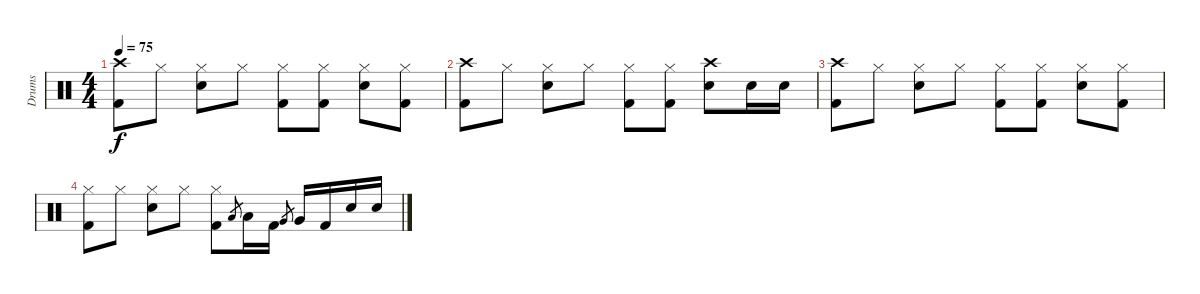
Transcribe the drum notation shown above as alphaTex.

\track ("Drums" "Drums") {instrument percussion}
\staff {score}
\articulation defaults
\ts (4 4)
\tempo 75
\clef neutral
\ks c
("Crash high (hit)" "Kick (hit) 2").8{dy f volume 0} "Hi-Hat (closed)".8 ("Hi-Hat (closed)" "Snare (hit) 2").8 "Hi-Hat (closed)".8 ("Hi-Hat (closed)" "Kick (hit) 2").8 ("Hi-Hat (closed)" "Kick (hit) 2").8 ("Hi-Hat (closed)" "Snare (hit) 2").8 ("Hi-Hat (closed)" "Kick (hit) 2").8 |
("Crash high (hit)" "Kick (hit) 2").8 "Hi-Hat (closed)".8 ("Hi-Hat (closed)" "Snare (hit) 2").8 "Hi-Hat (closed)".8 ("Hi-Hat (closed)" "Kick (hit) 2").8 ("Hi-Hat (closed)" "Kick (hit) 2").8 ("Crash high (hit)" "Snare (hit) 2").8 "Snare (hit) 2".16 "Snare (hit) 2".16 |
("Crash high (hit)" "Kick (hit) 2").8 "Hi-Hat (closed)".8 ("Hi-Hat (closed)" "Snare (hit) 2").8 "Hi-Hat (closed)".8 ("Hi-Hat (closed)" "Kick (hit) 2").8 ("Hi-Hat (closed)" "Kick (hit) 2").8 ("Hi-Hat (closed)" "Snare (hit) 2").8 ("Hi-Hat (closed)" "Kick (hit) 2").8 |
("Hi-Hat (closed)" "Kick (hit) 2").8 "Hi-Hat (closed)".8 ("Hi-Hat (closed)" "Snare (hit) 2").8 "Hi-Hat (closed)".8 ("Hi-Hat (closed)" "Kick (hit) 2").8 "Low Tom (hit)".8{gr} "Low Tom (hit)".16 "Kick (hit) 2".16 "Very Low Tom (hit)".8{gr} "Very Low Tom (hit)".16 "Kick (hit) 2".16 "Snare (hit) 2".16 "Snare (hit) 2".16
